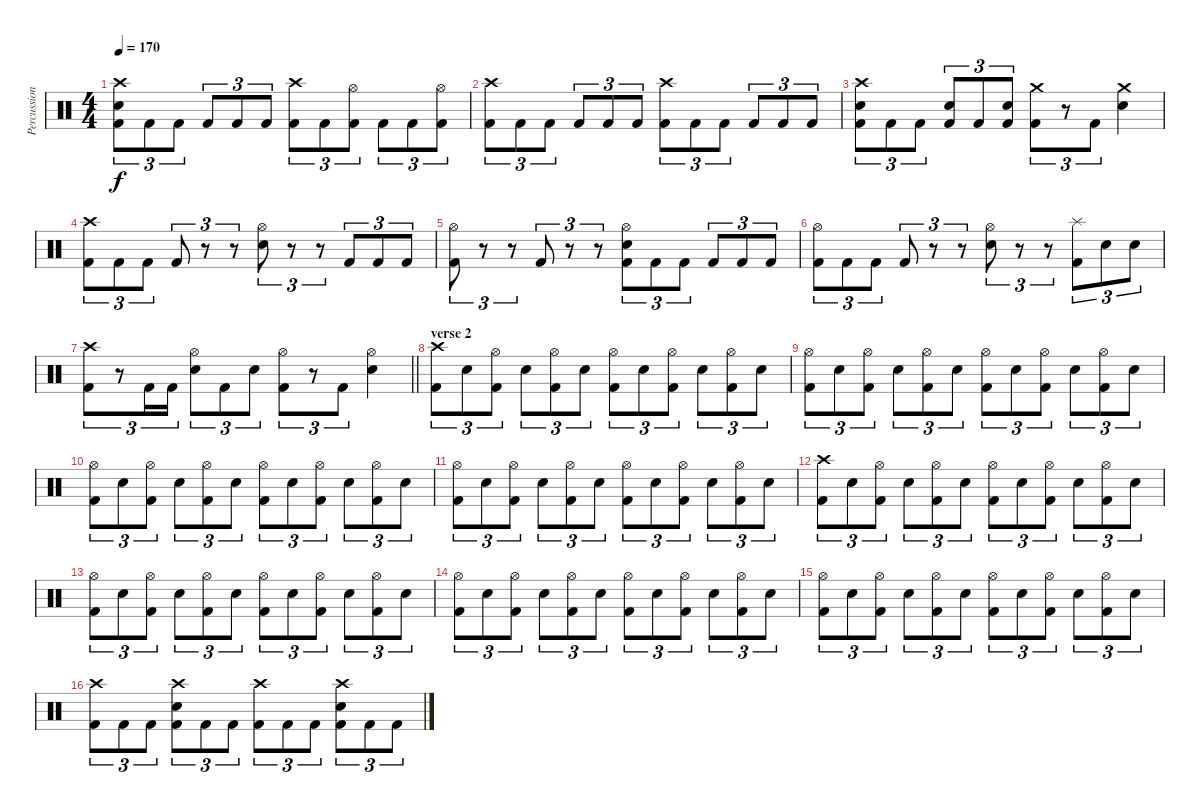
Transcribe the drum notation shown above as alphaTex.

\track ("Percussion" "Percussion") {instrument percussion}
\staff {score}
\articulation defaults
\ts (4 4)
\tempo 170
\clef neutral
\ks c
("Crash high (hit)" "Electric Snare (hit)" "Kick (hit) 2").8{tu (3 2) dy f} "Kick (hit) 2".8{tu (3 2)} "Kick (hit) 2".8{tu (3 2)} "Kick (hit) 2".8{tu (3 2)} "Kick (hit) 2".8{tu (3 2)} "Kick (hit) 2".8{tu (3 2)} ("Crash high (hit)" "Kick (hit) 2").8{tu (3 2)} "Kick (hit) 2".8{tu (3 2)} ("Hi-Hat (open)" "Kick (hit) 2").8{tu (3 2)} "Kick (hit) 2".8{tu (3 2)} "Kick (hit) 2".8{tu (3 2)} ("Hi-Hat (open)" "Kick (hit) 2").8{tu (3 2)} |
("Crash high (hit)" "Kick (hit) 2").8{tu (3 2)} "Kick (hit) 2".8{tu (3 2)} "Kick (hit) 2".8{tu (3 2)} "Kick (hit) 2".8{tu (3 2)} "Kick (hit) 2".8{tu (3 2)} "Kick (hit) 2".8{tu (3 2)} ("Crash high (hit)" "Kick (hit) 2").8{tu (3 2)} "Kick (hit) 2".8{tu (3 2)} "Kick (hit) 2".8{tu (3 2)} "Kick (hit) 2".8{tu (3 2)} "Kick (hit) 2".8{tu (3 2)} "Kick (hit) 2".8{tu (3 2)} |
("Crash high (hit)" "Electric Snare (hit)" "Kick (hit) 2").8{tu (3 2)} "Kick (hit) 2".8{tu (3 2)} "Kick (hit) 2".8{tu (3 2)} ("Electric Snare (hit)" "Kick (hit) 2").8{tu (3 2)} "Kick (hit) 2".8{tu (3 2)} ("Electric Snare (hit)" "Kick (hit) 2").8{tu (3 2)} ("Crash medium (hit)" "Kick (hit) 2").8{tu (3 2)} r.8{tu (3 2)} "Kick (hit) 2".8{tu (3 2)} ("Crash medium (hit)" "Electric Snare (hit)").4 |
("Crash high (hit)" "Kick (hit) 2").8{tu (3 2)} "Kick (hit) 2".8{tu (3 2)} "Kick (hit) 2".8{tu (3 2)} "Kick (hit) 2".8{tu (3 2)} r.8{tu (3 2)} r.8{tu (3 2)} ("Hi-Hat (open)" "Electric Snare (hit)").8{tu (3 2)} r.8{tu (3 2)} r.8{tu (3 2)} "Kick (hit) 2".8{tu (3 2)} "Kick (hit) 2".8{tu (3 2)} "Kick (hit) 2".8{tu (3 2)} |
("Hi-Hat (open)" "Kick (hit) 2").8{tu (3 2)} r.8{tu (3 2)} r.8{tu (3 2)} "Kick (hit) 2".8{tu (3 2)} r.8{tu (3 2)} r.8{tu (3 2)} ("Hi-Hat (open)" "Electric Snare (hit)" "Kick (hit) 2").8{tu (3 2)} "Kick (hit) 2".8{tu (3 2)} "Kick (hit) 2".8{tu (3 2)} "Kick (hit) 2".8{tu (3 2)} "Kick (hit) 2".8{tu (3 2)} "Kick (hit) 2".8{tu (3 2)} |
("Hi-Hat (open)" "Kick (hit) 2").8{tu (3 2)} "Kick (hit) 2".8{tu (3 2)} "Kick (hit) 2".8{tu (3 2)} "Kick (hit) 2".8{tu (3 2)} r.8{tu (3 2)} r.8{tu (3 2)} ("Hi-Hat (open)" "Electric Snare (hit)").8{tu (3 2)} r.8{tu (3 2)} r.8{tu (3 2)} ("Splash (hit)" "Kick (hit) 2").8{tu (3 2)} "Electric Snare (hit)".8{tu (3 2)} "Electric Snare (hit)".8{tu (3 2)} |
\barLineRight lightlight
("Crash high (hit)" "Kick (hit) 2").8{tu (3 2)} r.8{tu (3 2)} "Kick (hit) 2".16{tu (3 2)} "Kick (hit) 2".16{tu (3 2)} ("Hi-Hat (open)" "Electric Snare (hit)").8{tu (3 2)} "Kick (hit) 2".8{tu (3 2)} "Electric Snare (hit)".8{tu (3 2)} ("Hi-Hat (open)" "Kick (hit) 2").8{tu (3 2)} r.8{tu (3 2)} "Kick (hit) 2".8{tu (3 2)} ("Hi-Hat (open)" "Electric Snare (hit)").4 |
\section ("" "verse 2")
("Crash high (hit)" "Kick (hit) 2").8{tu (3 2)} "Electric Snare (hit)".8{tu (3 2)} ("Hi-Hat (open)" "Kick (hit) 2").8{tu (3 2)} "Electric Snare (hit)".8{tu (3 2)} ("Hi-Hat (open)" "Kick (hit) 2").8{tu (3 2)} "Electric Snare (hit)".8{tu (3 2)} ("Hi-Hat (open)" "Kick (hit) 2").8{tu (3 2)} "Electric Snare (hit)".8{tu (3 2)} ("Hi-Hat (open)" "Kick (hit) 2").8{tu (3 2)} "Electric Snare (hit)".8{tu (3 2)} ("Hi-Hat (open)" "Kick (hit) 2").8{tu (3 2)} "Electric Snare (hit)".8{tu (3 2)} |
("Hi-Hat (open)" "Kick (hit) 2").8{tu (3 2)} "Electric Snare (hit)".8{tu (3 2)} ("Hi-Hat (open)" "Kick (hit) 2").8{tu (3 2)} "Electric Snare (hit)".8{tu (3 2)} ("Hi-Hat (open)" "Kick (hit) 2").8{tu (3 2)} "Electric Snare (hit)".8{tu (3 2)} ("Hi-Hat (open)" "Kick (hit) 2").8{tu (3 2)} "Electric Snare (hit)".8{tu (3 2)} ("Hi-Hat (open)" "Kick (hit) 2").8{tu (3 2)} "Electric Snare (hit)".8{tu (3 2)} ("Hi-Hat (open)" "Kick (hit) 2").8{tu (3 2)} "Electric Snare (hit)".8{tu (3 2)} |
("Hi-Hat (open)" "Kick (hit) 2").8{tu (3 2)} "Electric Snare (hit)".8{tu (3 2)} ("Hi-Hat (open)" "Kick (hit) 2").8{tu (3 2)} "Electric Snare (hit)".8{tu (3 2)} ("Hi-Hat (open)" "Kick (hit) 2").8{tu (3 2)} "Electric Snare (hit)".8{tu (3 2)} ("Hi-Hat (open)" "Kick (hit) 2").8{tu (3 2)} "Electric Snare (hit)".8{tu (3 2)} ("Hi-Hat (open)" "Kick (hit) 2").8{tu (3 2)} "Electric Snare (hit)".8{tu (3 2)} ("Hi-Hat (open)" "Kick (hit) 2").8{tu (3 2)} "Electric Snare (hit)".8{tu (3 2)} |
("Hi-Hat (open)" "Kick (hit) 2").8{tu (3 2)} "Electric Snare (hit)".8{tu (3 2)} ("Hi-Hat (open)" "Kick (hit) 2").8{tu (3 2)} "Electric Snare (hit)".8{tu (3 2)} ("Hi-Hat (open)" "Kick (hit) 2").8{tu (3 2)} "Electric Snare (hit)".8{tu (3 2)} ("Hi-Hat (open)" "Kick (hit) 2").8{tu (3 2)} "Electric Snare (hit)".8{tu (3 2)} ("Hi-Hat (open)" "Kick (hit) 2").8{tu (3 2)} "Electric Snare (hit)".8{tu (3 2)} ("Hi-Hat (open)" "Kick (hit) 2").8{tu (3 2)} "Electric Snare (hit)".8{tu (3 2)} |
("Crash high (hit)" "Kick (hit) 2").8{tu (3 2)} "Electric Snare (hit)".8{tu (3 2)} ("Hi-Hat (open)" "Kick (hit) 2").8{tu (3 2)} "Electric Snare (hit)".8{tu (3 2)} ("Hi-Hat (open)" "Kick (hit) 2").8{tu (3 2)} "Electric Snare (hit)".8{tu (3 2)} ("Hi-Hat (open)" "Kick (hit) 2").8{tu (3 2)} "Electric Snare (hit)".8{tu (3 2)} ("Hi-Hat (open)" "Kick (hit) 2").8{tu (3 2)} "Electric Snare (hit)".8{tu (3 2)} ("Hi-Hat (open)" "Kick (hit) 2").8{tu (3 2)} "Electric Snare (hit)".8{tu (3 2)} |
("Hi-Hat (open)" "Kick (hit) 2").8{tu (3 2)} "Electric Snare (hit)".8{tu (3 2)} ("Hi-Hat (open)" "Kick (hit) 2").8{tu (3 2)} "Electric Snare (hit)".8{tu (3 2)} ("Hi-Hat (open)" "Kick (hit) 2").8{tu (3 2)} "Electric Snare (hit)".8{tu (3 2)} ("Hi-Hat (open)" "Kick (hit) 2").8{tu (3 2)} "Electric Snare (hit)".8{tu (3 2)} ("Hi-Hat (open)" "Kick (hit) 2").8{tu (3 2)} "Electric Snare (hit)".8{tu (3 2)} ("Hi-Hat (open)" "Kick (hit) 2").8{tu (3 2)} "Electric Snare (hit)".8{tu (3 2)} |
("Hi-Hat (open)" "Kick (hit) 2").8{tu (3 2)} "Electric Snare (hit)".8{tu (3 2)} ("Hi-Hat (open)" "Kick (hit) 2").8{tu (3 2)} "Electric Snare (hit)".8{tu (3 2)} ("Hi-Hat (open)" "Kick (hit) 2").8{tu (3 2)} "Electric Snare (hit)".8{tu (3 2)} ("Hi-Hat (open)" "Kick (hit) 2").8{tu (3 2)} "Electric Snare (hit)".8{tu (3 2)} ("Hi-Hat (open)" "Kick (hit) 2").8{tu (3 2)} "Electric Snare (hit)".8{tu (3 2)} ("Hi-Hat (open)" "Kick (hit) 2").8{tu (3 2)} "Electric Snare (hit)".8{tu (3 2)} |
("Hi-Hat (open)" "Kick (hit) 2").8{tu (3 2)} "Electric Snare (hit)".8{tu (3 2)} ("Hi-Hat (open)" "Kick (hit) 2").8{tu (3 2)} "Electric Snare (hit)".8{tu (3 2)} ("Hi-Hat (open)" "Kick (hit) 2").8{tu (3 2)} "Electric Snare (hit)".8{tu (3 2)} ("Hi-Hat (open)" "Kick (hit) 2").8{tu (3 2)} "Electric Snare (hit)".8{tu (3 2)} ("Hi-Hat (open)" "Kick (hit) 2").8{tu (3 2)} "Electric Snare (hit)".8{tu (3 2)} ("Hi-Hat (open)" "Kick (hit) 2").8{tu (3 2)} "Electric Snare (hit)".8{tu (3 2)} |
("Crash high (hit)" "Kick (hit) 2").8{tu (3 2)} "Kick (hit) 2".8{tu (3 2)} "Kick (hit) 2".8{tu (3 2)} ("Crash high (hit)" "Electric Snare (hit)" "Kick (hit) 2").8{tu (3 2)} "Kick (hit) 2".8{tu (3 2)} "Kick (hit) 2".8{tu (3 2)} ("Crash high (hit)" "Kick (hit) 2").8{tu (3 2)} "Kick (hit) 2".8{tu (3 2)} "Kick (hit) 2".8{tu (3 2)} ("Crash high (hit)" "Electric Snare (hit)" "Kick (hit) 2").8{tu (3 2)} "Kick (hit) 2".8{tu (3 2)} "Kick (hit) 2".8{tu (3 2)}
